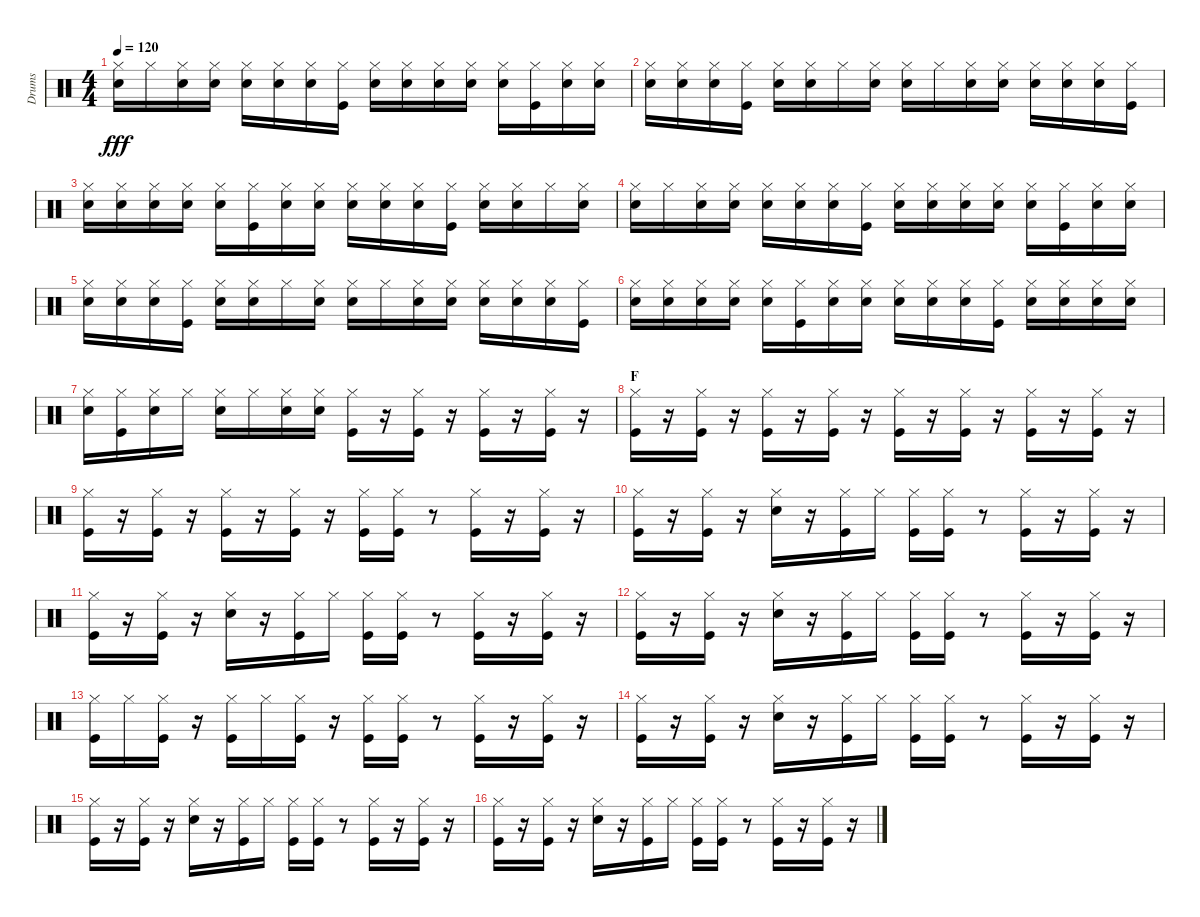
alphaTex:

\track ("Drums" "Drums") {instrument percussion}
\staff {score}
\articulation defaults
\ts (4 4)
\tempo 120
\clef neutral
\ks c
("Snare (hit) 2" "Hi-Hat (closed)").16{dy fff} "Hi-Hat (closed)".16 ("Snare (hit) 2" "Hi-Hat (closed)").16 ("Snare (hit) 2" "Hi-Hat (closed)").16 ("Snare (hit) 2" "Hi-Hat (closed)").16 ("Snare (hit) 2" "Hi-Hat (closed)").16 ("Snare (hit) 2" "Hi-Hat (closed)").16 ("Kick (hit)" "Hi-Hat (closed)").16 ("Snare (hit) 2" "Hi-Hat (closed)").16 ("Snare (hit) 2" "Hi-Hat (closed)").16 ("Snare (hit) 2" "Hi-Hat (closed)").16 ("Snare (hit) 2" "Hi-Hat (closed)").16 ("Snare (hit) 2" "Hi-Hat (closed)").16 ("Kick (hit)" "Hi-Hat (closed)").16 ("Snare (hit) 2" "Hi-Hat (closed)").16 ("Snare (hit) 2" "Hi-Hat (closed)").16 |
("Snare (hit) 2" "Hi-Hat (closed)").16 ("Snare (hit) 2" "Hi-Hat (closed)").16 ("Snare (hit) 2" "Hi-Hat (closed)").16 ("Kick (hit)" "Hi-Hat (closed)").16 ("Snare (hit) 2" "Hi-Hat (closed)").16 ("Snare (hit) 2" "Hi-Hat (closed)").16 "Hi-Hat (closed)".16 ("Snare (hit) 2" "Hi-Hat (closed)").16 ("Snare (hit) 2" "Hi-Hat (closed)").16 "Hi-Hat (closed)".16 ("Snare (hit) 2" "Hi-Hat (closed)").16 ("Snare (hit) 2" "Hi-Hat (closed)").16 ("Snare (hit) 2" "Hi-Hat (closed)").16 ("Snare (hit) 2" "Hi-Hat (closed)").16 ("Snare (hit) 2" "Hi-Hat (closed)").16 ("Kick (hit)" "Hi-Hat (closed)").16 |
("Snare (hit) 2" "Hi-Hat (closed)").16 ("Snare (hit) 2" "Hi-Hat (closed)").16 ("Snare (hit) 2" "Hi-Hat (closed)").16 ("Snare (hit) 2" "Hi-Hat (closed)").16 ("Snare (hit) 2" "Hi-Hat (closed)").16 ("Kick (hit)" "Hi-Hat (closed)").16 ("Snare (hit) 2" "Hi-Hat (closed)").16 ("Snare (hit) 2" "Hi-Hat (closed)").16 ("Snare (hit) 2" "Hi-Hat (closed)").16 ("Snare (hit) 2" "Hi-Hat (closed)").16 ("Snare (hit) 2" "Hi-Hat (closed)").16 ("Kick (hit)" "Hi-Hat (closed)").16 ("Snare (hit) 2" "Hi-Hat (closed)").16 ("Snare (hit) 2" "Hi-Hat (closed)").16 "Hi-Hat (closed)".16 ("Snare (hit) 2" "Hi-Hat (closed)").16 |
("Snare (hit) 2" "Hi-Hat (closed)").16 "Hi-Hat (closed)".16 ("Snare (hit) 2" "Hi-Hat (closed)").16 ("Snare (hit) 2" "Hi-Hat (closed)").16 ("Snare (hit) 2" "Hi-Hat (closed)").16 ("Snare (hit) 2" "Hi-Hat (closed)").16 ("Snare (hit) 2" "Hi-Hat (closed)").16 ("Kick (hit)" "Hi-Hat (closed)").16 ("Snare (hit) 2" "Hi-Hat (closed)").16 ("Snare (hit) 2" "Hi-Hat (closed)").16 ("Snare (hit) 2" "Hi-Hat (closed)").16 ("Snare (hit) 2" "Hi-Hat (closed)").16 ("Snare (hit) 2" "Hi-Hat (closed)").16 ("Kick (hit)" "Hi-Hat (closed)").16 ("Snare (hit) 2" "Hi-Hat (closed)").16 ("Snare (hit) 2" "Hi-Hat (closed)").16 |
("Snare (hit) 2" "Hi-Hat (closed)").16 ("Snare (hit) 2" "Hi-Hat (closed)").16 ("Snare (hit) 2" "Hi-Hat (closed)").16 ("Kick (hit)" "Hi-Hat (closed)").16 ("Snare (hit) 2" "Hi-Hat (closed)").16 ("Snare (hit) 2" "Hi-Hat (closed)").16 "Hi-Hat (closed)".16 ("Snare (hit) 2" "Hi-Hat (closed)").16 ("Snare (hit) 2" "Hi-Hat (closed)").16 "Hi-Hat (closed)".16 ("Snare (hit) 2" "Hi-Hat (closed)").16 ("Snare (hit) 2" "Hi-Hat (closed)").16 ("Snare (hit) 2" "Hi-Hat (closed)").16 ("Snare (hit) 2" "Hi-Hat (closed)").16 ("Snare (hit) 2" "Hi-Hat (closed)").16 ("Kick (hit)" "Hi-Hat (closed)").16 |
("Snare (hit) 2" "Hi-Hat (closed)").16 ("Snare (hit) 2" "Hi-Hat (closed)").16 ("Snare (hit) 2" "Hi-Hat (closed)").16 ("Snare (hit) 2" "Hi-Hat (closed)").16 ("Snare (hit) 2" "Hi-Hat (closed)").16 ("Kick (hit)" "Hi-Hat (closed)").16 ("Snare (hit) 2" "Hi-Hat (closed)").16 ("Snare (hit) 2" "Hi-Hat (closed)").16 ("Snare (hit) 2" "Hi-Hat (closed)").16 ("Snare (hit) 2" "Hi-Hat (closed)").16 ("Snare (hit) 2" "Hi-Hat (closed)").16 ("Kick (hit)" "Hi-Hat (closed)").16 ("Snare (hit) 2" "Hi-Hat (closed)").16 ("Snare (hit) 2" "Hi-Hat (closed)").16 ("Snare (hit) 2" "Hi-Hat (closed)").16 ("Snare (hit) 2" "Hi-Hat (closed)").16 |
("Snare (hit) 2" "Hi-Hat (closed)").16 ("Kick (hit)" "Hi-Hat (closed)").16 ("Snare (hit) 2" "Hi-Hat (closed)").16 "Hi-Hat (closed)".16 ("Snare (hit) 2" "Hi-Hat (closed)").16 "Hi-Hat (closed)".16 ("Snare (hit) 2" "Hi-Hat (closed)").16 ("Snare (hit) 2" "Hi-Hat (closed)").16 ("Kick (hit)" "Hi-Hat (closed)").16 r.16 ("Kick (hit)" "Hi-Hat (closed)").16 r.16 ("Kick (hit)" "Hi-Hat (closed)").16 r.16 ("Kick (hit)" "Hi-Hat (closed)").16 r.16 |
\section ("" "F")
("Kick (hit)" "Hi-Hat (closed)").16 r.16 ("Kick (hit)" "Hi-Hat (closed)").16 r.16 ("Kick (hit)" "Hi-Hat (closed)").16 r.16 ("Kick (hit)" "Hi-Hat (closed)").16 r.16 ("Kick (hit)" "Hi-Hat (closed)").16 r.16 ("Kick (hit)" "Hi-Hat (closed)").16 r.16 ("Kick (hit)" "Hi-Hat (closed)").16 r.16 ("Kick (hit)" "Hi-Hat (closed)").16 r.16 |
("Kick (hit)" "Hi-Hat (closed)").16 r.16 ("Kick (hit)" "Hi-Hat (closed)").16 r.16 ("Kick (hit)" "Hi-Hat (closed)").16 r.16 ("Kick (hit)" "Hi-Hat (closed)").16 r.16 ("Kick (hit)" "Hi-Hat (closed)").16 ("Kick (hit)" "Hi-Hat (closed)").16 r.8 ("Kick (hit)" "Hi-Hat (closed)").16 r.16 ("Kick (hit)" "Hi-Hat (closed)").16 r.16 |
("Kick (hit)" "Hi-Hat (closed)").16 r.16 ("Kick (hit)" "Hi-Hat (closed)").16 r.16 ("Snare (hit) 2" "Hi-Hat (closed)").16 r.16 ("Kick (hit)" "Hi-Hat (closed)").16 "Hi-Hat (closed)".16 ("Kick (hit)" "Hi-Hat (closed)").16 ("Kick (hit)" "Hi-Hat (closed)").16 r.8 ("Kick (hit)" "Hi-Hat (closed)").16 r.16 ("Kick (hit)" "Hi-Hat (closed)").16 r.16 |
("Kick (hit)" "Hi-Hat (closed)").16 r.16 ("Kick (hit)" "Hi-Hat (closed)").16 r.16 ("Snare (hit) 2" "Hi-Hat (closed)").16 r.16 ("Kick (hit)" "Hi-Hat (closed)").16 "Hi-Hat (closed)".16 ("Kick (hit)" "Hi-Hat (closed)").16 ("Kick (hit)" "Hi-Hat (closed)").16 r.8 ("Kick (hit)" "Hi-Hat (closed)").16 r.16 ("Kick (hit)" "Hi-Hat (closed)").16 r.16 |
("Kick (hit)" "Hi-Hat (closed)").16 r.16 ("Kick (hit)" "Hi-Hat (closed)").16 r.16 ("Snare (hit) 2" "Hi-Hat (closed)").16 r.16 ("Kick (hit)" "Hi-Hat (closed)").16 "Hi-Hat (closed)".16 ("Kick (hit)" "Hi-Hat (closed)").16 ("Kick (hit)" "Hi-Hat (closed)").16 r.8 ("Kick (hit)" "Hi-Hat (closed)").16 r.16 ("Kick (hit)" "Hi-Hat (closed)").16 r.16 |
("Kick (hit)" "Hi-Hat (closed)").16 "Hi-Hat (closed)".16 ("Kick (hit)" "Hi-Hat (closed)").16 r.16 ("Kick (hit)" "Hi-Hat (closed)").16 "Hi-Hat (closed)".16 ("Kick (hit)" "Hi-Hat (closed)").16 r.16 ("Kick (hit)" "Hi-Hat (closed)").16 ("Kick (hit)" "Hi-Hat (closed)").16 r.8 ("Kick (hit)" "Hi-Hat (closed)").16 r.16 ("Kick (hit)" "Hi-Hat (closed)").16 r.16 |
("Kick (hit)" "Hi-Hat (closed)").16 r.16 ("Kick (hit)" "Hi-Hat (closed)").16 r.16 ("Snare (hit) 2" "Hi-Hat (closed)").16 r.16 ("Kick (hit)" "Hi-Hat (closed)").16 "Hi-Hat (closed)".16 ("Kick (hit)" "Hi-Hat (closed)").16 ("Kick (hit)" "Hi-Hat (closed)").16 r.8 ("Kick (hit)" "Hi-Hat (closed)").16 r.16 ("Kick (hit)" "Hi-Hat (closed)").16 r.16 |
("Kick (hit)" "Hi-Hat (closed)").16 r.16 ("Kick (hit)" "Hi-Hat (closed)").16 r.16 ("Snare (hit) 2" "Hi-Hat (closed)").16 r.16 ("Kick (hit)" "Hi-Hat (closed)").16 "Hi-Hat (closed)".16 ("Kick (hit)" "Hi-Hat (closed)").16 ("Kick (hit)" "Hi-Hat (closed)").16 r.8 ("Kick (hit)" "Hi-Hat (closed)").16 r.16 ("Kick (hit)" "Hi-Hat (closed)").16 r.16 |
("Kick (hit)" "Hi-Hat (closed)").16 r.16 ("Kick (hit)" "Hi-Hat (closed)").16 r.16 ("Snare (hit) 2" "Hi-Hat (closed)").16 r.16 ("Kick (hit)" "Hi-Hat (closed)").16 "Hi-Hat (closed)".16 ("Kick (hit)" "Hi-Hat (closed)").16 ("Kick (hit)" "Hi-Hat (closed)").16 r.8 ("Kick (hit)" "Hi-Hat (closed)").16 r.16 ("Kick (hit)" "Hi-Hat (closed)").16 r.16
